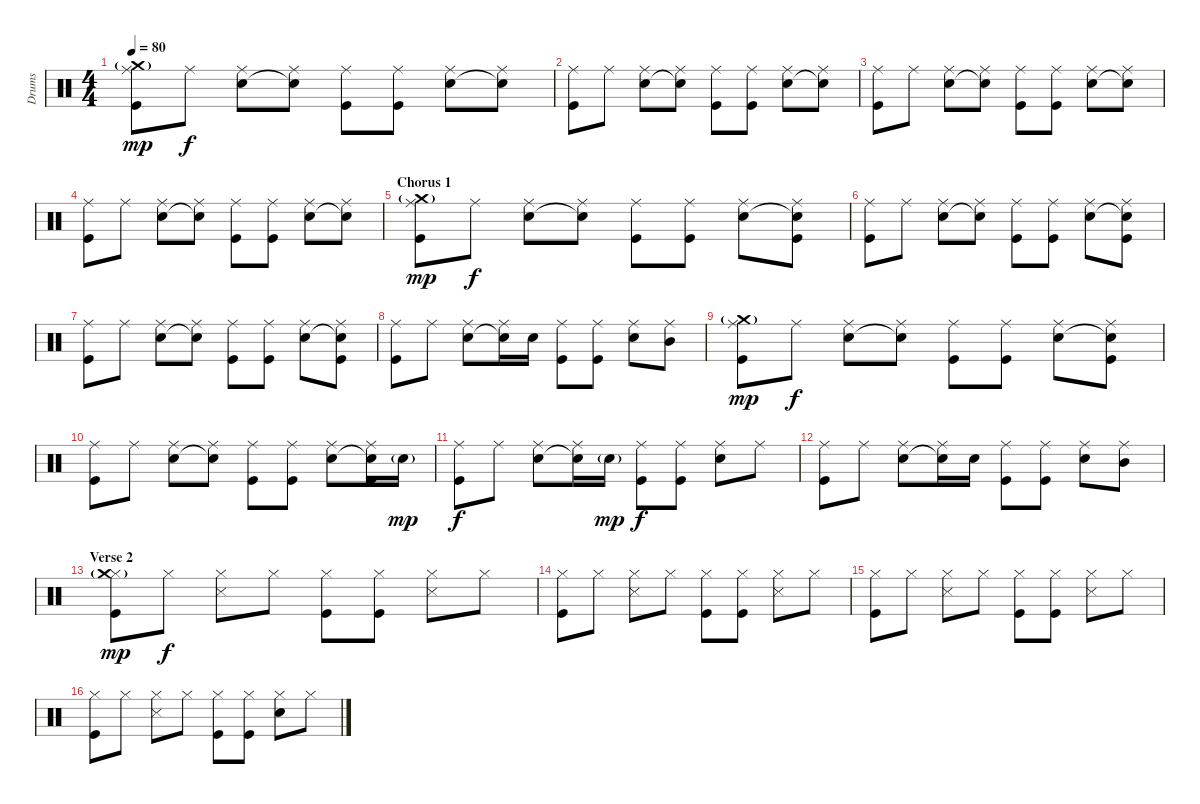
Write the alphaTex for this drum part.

\track ("Drums" "Drums") {instrument percussion}
\staff {score}
\articulation defaults
\ts (4 4)
\tempo 80
\clef neutral
\ks c
("Ride (middle)" "Crash medium (hit)"{g} "Kick (hit)").8{dy mp} "Ride (middle)".8{dy f} ("Ride (middle)" "Snare (hit) 2").8 ("Ride (middle)" "Snare (hit)"{t}).8 ("Ride (middle)" "Kick (hit)").8 ("Ride (middle)" "Kick (hit)").8 ("Ride (middle)" "Snare (hit) 2").8 ("Ride (middle)" "Snare (hit)"{t}).8 |
("Ride (middle)" "Kick (hit)").8 "Ride (middle)".8 ("Ride (middle)" "Snare (hit) 2").8 ("Ride (middle)" "Snare (hit)"{t}).8 ("Ride (middle)" "Kick (hit)").8 ("Ride (middle)" "Kick (hit)").8 ("Ride (middle)" "Snare (hit) 2").8 ("Ride (middle)" "Snare (hit)"{t}).8 |
("Ride (middle)" "Kick (hit)").8 "Ride (middle)".8 ("Ride (middle)" "Snare (hit) 2").8 ("Ride (middle)" "Snare (hit)"{t}).8 ("Ride (middle)" "Kick (hit)").8 ("Ride (middle)" "Kick (hit)").8 ("Ride (middle)" "Snare (hit) 2").8 ("Ride (middle)" "Snare (hit)"{t}).8 |
("Ride (middle)" "Kick (hit)").8 "Ride (middle)".8 ("Ride (middle)" "Snare (hit) 2").8 ("Ride (middle)" "Snare (hit)"{t}).8 ("Ride (middle)" "Kick (hit)").8 ("Ride (middle)" "Kick (hit)").8 ("Ride (middle)" "Snare (hit) 2").8 ("Ride (middle)" "Snare (hit)"{t}).8 |
\section ("" "Chorus 1")
("Ride (middle)" "Crash medium (hit)"{g} "Kick (hit)").8{dy mp} "Ride (middle)".8{dy f} ("Ride (middle)" "Snare (hit) 2").8 ("Ride (middle)" "Snare (hit)"{t}).8 ("Ride (middle)" "Kick (hit)").8 ("Ride (middle)" "Kick (hit)").8 ("Ride (middle)" "Snare (hit) 2").8 ("Ride (middle)" "Snare (hit)"{t} "Kick (hit)").8 |
("Ride (middle)" "Kick (hit)").8 "Ride (middle)".8 ("Ride (middle)" "Snare (hit) 2").8 ("Ride (middle)" "Snare (hit)"{t}).8 ("Ride (middle)" "Kick (hit)").8 ("Ride (middle)" "Kick (hit)").8 ("Ride (middle)" "Snare (hit) 2").8 ("Ride (middle)" "Snare (hit)"{t} "Kick (hit)").8 |
("Ride (middle)" "Kick (hit)").8 "Ride (middle)".8 ("Ride (middle)" "Snare (hit) 2").8 ("Ride (middle)" "Snare (hit)"{t}).8 ("Ride (middle)" "Kick (hit)").8 ("Ride (middle)" "Kick (hit)").8 ("Ride (middle)" "Snare (hit) 2").8 ("Ride (middle)" "Snare (hit)"{t} "Kick (hit)").8 |
("Ride (middle)" "Kick (hit)").8 "Ride (middle)".8 ("Ride (middle)" "Snare (hit) 2").8 ("Ride (middle)" "Snare (hit)"{t}).16 "Snare (hit) 2".16 ("Ride (middle)" "Kick (hit)").8 ("Ride (middle)" "Kick (hit)").8 ("Ride (middle)" "Snare (hit) 2").8 ("Ride (middle)" "Mid Tom (hit)").8 |
("Ride (middle)" "Crash medium (hit)"{g} "Kick (hit)").8{dy mp} "Ride (middle)".8{dy f} ("Ride (middle)" "Snare (hit) 2").8 ("Ride (middle)" "Snare (hit)"{t}).8 ("Ride (middle)" "Kick (hit)").8 ("Ride (middle)" "Kick (hit)").8 ("Ride (middle)" "Snare (hit) 2").8 ("Ride (middle)" "Snare (hit)"{t} "Kick (hit)").8 |
("Ride (middle)" "Kick (hit)").8 "Ride (middle)".8 ("Ride (middle)" "Snare (hit) 2").8 ("Ride (middle)" "Snare (hit)"{t}).8 ("Ride (middle)" "Kick (hit)").8 ("Ride (middle)" "Kick (hit)").8 ("Ride (middle)" "Snare (hit) 2").8 ("Ride (middle)" "Snare (hit)"{t} "Kick (hit)").16 "Snare (hit) 2"{g}.16{dy mp} |
("Ride (middle)" "Kick (hit)").8{dy f} "Ride (middle)".8 ("Ride (middle)" "Snare (hit) 2").8 ("Ride (middle)" "Snare (hit)"{t}).16 "Snare (hit) 2"{g}.16{dy mp} ("Ride (middle)" "Kick (hit)").8{dy f} ("Ride (middle)" "Kick (hit)").8 ("Ride (middle)" "Snare (hit) 2").8 "Ride (middle)".8 |
("Ride (middle)" "Kick (hit)").8 "Ride (middle)".8 ("Ride (middle)" "Snare (hit) 2").8 ("Ride (middle)" "Snare (hit)"{t}).16 "Snare (hit) 2".16 ("Ride (middle)" "Kick (hit)").8 ("Ride (middle)" "Kick (hit)").8 ("Ride (middle)" "Snare (hit) 2").8 ("Ride (middle)" "Mid Tom (hit)").8 |
\section ("" "Verse 2")
("Hi-Hat (closed)" "Crash medium (hit)"{g} "Kick (hit)").8{dy mp} "Hi-Hat (closed)".8{dy f} ("Hi-Hat (closed)" "Snare (side stick) 3").8 "Hi-Hat (closed)".8 ("Hi-Hat (closed)" "Kick (hit)").8 ("Hi-Hat (closed)" "Kick (hit)").8 ("Hi-Hat (closed)" "Snare (side stick) 3").8 "Hi-Hat (closed)".8 |
("Hi-Hat (closed)" "Kick (hit)").8 "Hi-Hat (closed)".8 ("Hi-Hat (closed)" "Snare (side stick) 3").8 "Hi-Hat (closed)".8 ("Hi-Hat (closed)" "Kick (hit)").8 ("Hi-Hat (closed)" "Kick (hit)").8 ("Hi-Hat (closed)" "Snare (side stick) 3").8 "Hi-Hat (closed)".8 |
("Hi-Hat (closed)" "Kick (hit)").8 "Hi-Hat (closed)".8 ("Hi-Hat (closed)" "Snare (side stick) 3").8 "Hi-Hat (closed)".8 ("Hi-Hat (closed)" "Kick (hit)").8 ("Hi-Hat (closed)" "Kick (hit)").8 ("Hi-Hat (closed)" "Snare (side stick) 3").8 "Hi-Hat (closed)".8 |
("Hi-Hat (closed)" "Kick (hit)").8 "Hi-Hat (closed)".8 ("Hi-Hat (closed)" "Snare (side stick) 3").8 "Hi-Hat (closed)".8 ("Hi-Hat (closed)" "Kick (hit)").8 ("Hi-Hat (closed)" "Kick (hit)").8 ("Hi-Hat (closed)" "Snare (hit) 2").8 "Hi-Hat (closed)".8
